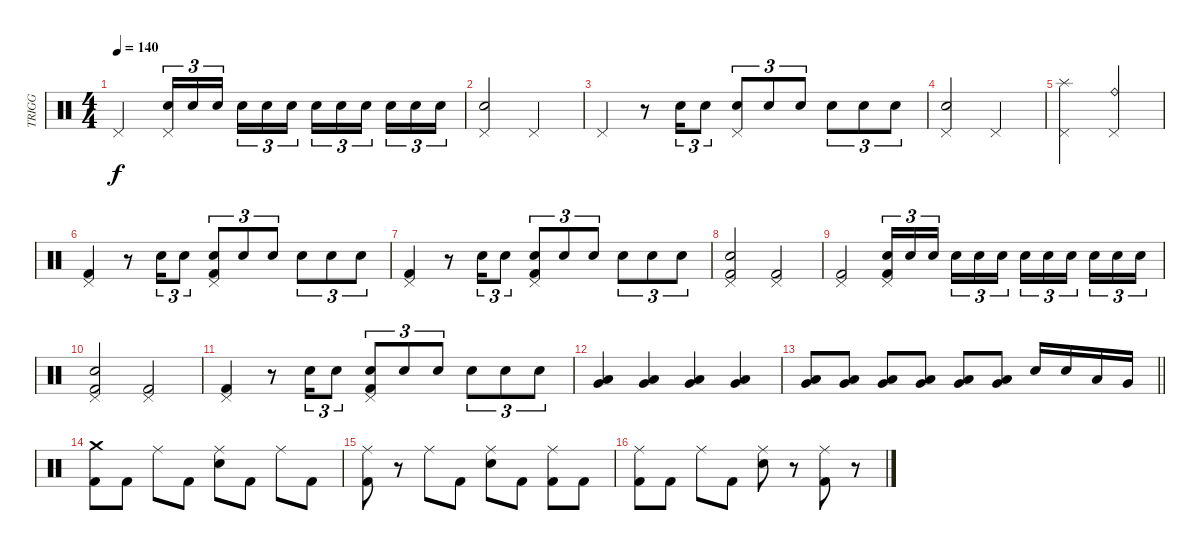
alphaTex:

\track ("TRIGG" "TRIGG") {instrument percussion}
\staff {score}
\articulation defaults
\ts (4 4)
\tempo 140
\clef neutral
\ks c "Pedal Hi-Hat (hit)".2{dy f}
("Pedal Hi-Hat (hit)" "Electric Snare (hit)").16{tu (3 2)} "Electric Snare (hit)".16{tu (3 2)} "Electric Snare (hit)".16{tu (3 2) beam splitsecondary} "Electric Snare (hit)".16{tu (3 2)} "Electric Snare (hit)".16{tu (3 2)} "Electric Snare (hit)".16{tu (3 2)} "Electric Snare (hit)".16{tu (3 2)} "Electric Snare (hit)".16{tu (3 2)} "Electric Snare (hit)".16{tu (3 2) beam splitsecondary} "Electric Snare (hit)".16{tu (3 2)} "Electric Snare (hit)".16{tu (3 2)} "Electric Snare (hit)".16{tu (3 2)} |
("Pedal Hi-Hat (hit)" "Electric Snare (hit)").2 "Pedal Hi-Hat (hit)".2 |
"Pedal Hi-Hat (hit)".4 r.8 "Electric Snare (hit)".16{tu (3 2)} "Electric Snare (hit)".8{tu (3 2)} ("Pedal Hi-Hat (hit)" "Electric Snare (hit)").8{tu (3 2)} "Electric Snare (hit)".8{tu (3 2)} "Electric Snare (hit)".8{tu (3 2)} "Electric Snare (hit)".8{tu (3 2)} "Electric Snare (hit)".8{tu (3 2)} "Electric Snare (hit)".8{tu (3 2)} |
("Pedal Hi-Hat (hit)" "Electric Snare (hit)").2 "Pedal Hi-Hat (hit)".2 |
("Splash (hit)" "Pedal Hi-Hat (hit)").2 ("Ride (bell)" "Pedal Hi-Hat (hit)").2 |
("Pedal Hi-Hat (hit)" "Kick (hit) 2").4 r.8 "Electric Snare (hit)".16{tu (3 2)} "Electric Snare (hit)".8{tu (3 2)} ("Pedal Hi-Hat (hit)" "Electric Snare (hit)" "Kick (hit) 2").8{tu (3 2)} "Electric Snare (hit)".8{tu (3 2)} "Electric Snare (hit)".8{tu (3 2)} "Electric Snare (hit)".8{tu (3 2)} "Electric Snare (hit)".8{tu (3 2)} "Electric Snare (hit)".8{tu (3 2)} |
("Pedal Hi-Hat (hit)" "Kick (hit) 2").4 r.8 "Electric Snare (hit)".16{tu (3 2)} "Electric Snare (hit)".8{tu (3 2)} ("Pedal Hi-Hat (hit)" "Electric Snare (hit)" "Kick (hit) 2").8{tu (3 2)} "Electric Snare (hit)".8{tu (3 2)} "Electric Snare (hit)".8{tu (3 2)} "Electric Snare (hit)".8{tu (3 2)} "Electric Snare (hit)".8{tu (3 2)} "Electric Snare (hit)".8{tu (3 2)} |
("Pedal Hi-Hat (hit)" "Electric Snare (hit)" "Kick (hit) 2").2 ("Pedal Hi-Hat (hit)" "Kick (hit) 2").2 |
("Pedal Hi-Hat (hit)" "Kick (hit) 2").2 ("Pedal Hi-Hat (hit)" "Electric Snare (hit)" "Kick (hit) 2").16{tu (3 2)} "Electric Snare (hit)".16{tu (3 2)} "Electric Snare (hit)".16{tu (3 2) beam splitsecondary} "Electric Snare (hit)".16{tu (3 2)} "Electric Snare (hit)".16{tu (3 2)} "Electric Snare (hit)".16{tu (3 2)} "Electric Snare (hit)".16{tu (3 2)} "Electric Snare (hit)".16{tu (3 2)} "Electric Snare (hit)".16{tu (3 2) beam splitsecondary} "Electric Snare (hit)".16{tu (3 2)} "Electric Snare (hit)".16{tu (3 2)} "Electric Snare (hit)".16{tu (3 2)} |
("Pedal Hi-Hat (hit)" "Electric Snare (hit)" "Kick (hit) 2").2 ("Pedal Hi-Hat (hit)" "Kick (hit) 2").2 |
("Pedal Hi-Hat (hit)" "Kick (hit) 2").4 r.8 "Electric Snare (hit)".16{tu (3 2)} "Electric Snare (hit)".8{tu (3 2)} ("Pedal Hi-Hat (hit)" "Electric Snare (hit)" "Kick (hit) 2").8{tu (3 2)} "Electric Snare (hit)".8{tu (3 2)} "Electric Snare (hit)".8{tu (3 2)} "Electric Snare (hit)".8{tu (3 2)} "Electric Snare (hit)".8{tu (3 2)} "Electric Snare (hit)".8{tu (3 2)} |
("Very Low Tom (hit)" "Low Floor Tom (hit)").4 ("Very Low Tom (hit)" "Low Floor Tom (hit)").4 ("Very Low Tom (hit)" "Low Floor Tom (hit)").4 ("Very Low Tom (hit)" "Low Floor Tom (hit)").4 |
\barLineRight lightlight
("Very Low Tom (hit)" "Low Floor Tom (hit)").8 ("Very Low Tom (hit)" "Low Floor Tom (hit)").8 ("Very Low Tom (hit)" "Low Floor Tom (hit)").8 ("Very Low Tom (hit)" "Low Floor Tom (hit)").8 ("Very Low Tom (hit)" "Low Floor Tom (hit)").8 ("Very Low Tom (hit)" "Low Floor Tom (hit)").8 "Electric Snare (hit)".16 "Electric Snare (hit)".16 "Low Tom (hit)".16 "Very Low Tom (hit)".16 |
("Crash medium (hit)" "Kick (hit) 2").8 "Kick (hit) 2".8 "Ride (middle)".8 "Kick (hit) 2".8 ("Ride (middle)" "Electric Snare (hit)").8 "Kick (hit) 2".8 "Ride (middle)".8 "Kick (hit) 2".8 |
("Ride (middle)" "Kick (hit) 2").8 r.8 "Ride (middle)".8 "Kick (hit) 2".8 ("Ride (middle)" "Electric Snare (hit)").8 "Kick (hit) 2".8 ("Ride (middle)" "Kick (hit) 2").8 "Kick (hit) 2".8 |
("Ride (middle)" "Kick (hit) 2").8 "Kick (hit) 2".8 "Ride (middle)".8 "Kick (hit) 2".8 ("Ride (middle)" "Electric Snare (hit)").8 r.8 ("Ride (middle)" "Kick (hit) 2").8 r.8
